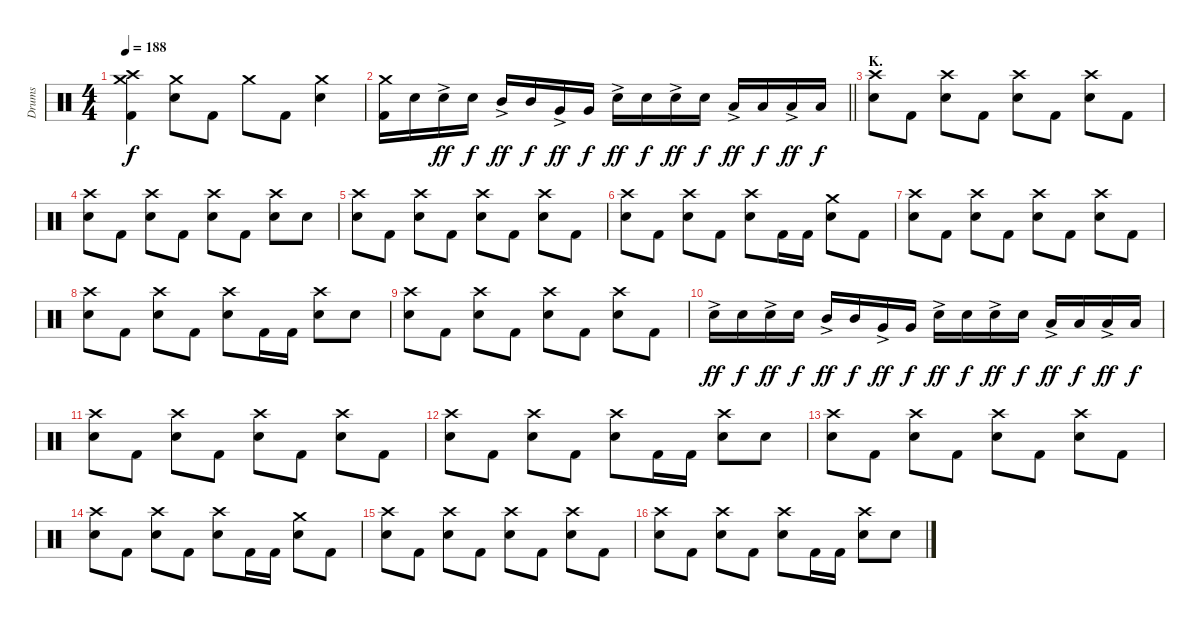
\track ("Drums" "Drums") {instrument percussion}
\staff {score}
\articulation defaults
\ts (4 4)
\tempo 188
\clef neutral
\ks c
("Crash medium (hit)" "Crash high (hit)" "Kick (hit) 2").4{dy f} ("Crash medium (hit)" "Electric Snare (hit)").8 "Kick (hit) 2".8 "Crash medium (hit)".8 "Kick (hit) 2".8 ("Crash medium (hit)" "Electric Snare (hit)").4 |
\barLineRight lightlight
("Crash medium (hit)" "Kick (hit) 2").16 "Electric Snare (hit)".16 "Electric Snare (hit)"{ac}.16{dy ff} "Electric Snare (hit)".16{dy f} "Mid Tom (hit)"{ac}.16{dy ff} "Mid Tom (hit)".16{dy f} "Very Low Tom (hit)"{ac}.16{dy ff} "Very Low Tom (hit)".16{dy f} "Electric Snare (hit)"{ac}.16{dy ff} "Electric Snare (hit)".16{dy f} "Electric Snare (hit)"{ac}.16{dy ff} "Electric Snare (hit)".16{dy f} "Low Tom (hit)"{ac}.16{dy ff} "Low Tom (hit)".16{dy f} "Low Floor Tom (hit)"{ac}.16{dy ff} "Low Floor Tom (hit)".16{dy f} |
\section ("" "K.")
("Crash high (hit)" "Electric Snare (hit)").8 "Kick (hit) 2".8 ("Crash high (hit)" "Electric Snare (hit)").8 "Kick (hit) 2".8 ("Crash high (hit)" "Electric Snare (hit)").8 "Kick (hit) 2".8 ("Crash high (hit)" "Electric Snare (hit)").8 "Kick (hit) 2".8 |
("Crash high (hit)" "Electric Snare (hit)").8 "Kick (hit) 2".8 ("Crash high (hit)" "Electric Snare (hit)").8 "Kick (hit) 2".8 ("Crash high (hit)" "Electric Snare (hit)").8 "Kick (hit) 2".8 ("Crash high (hit)" "Electric Snare (hit)").8 "Electric Snare (hit)".8 |
("Crash high (hit)" "Electric Snare (hit)").8 "Kick (hit) 2".8 ("Crash high (hit)" "Electric Snare (hit)").8 "Kick (hit) 2".8 ("Crash high (hit)" "Electric Snare (hit)").8 "Kick (hit) 2".8 ("Crash high (hit)" "Electric Snare (hit)").8 "Kick (hit) 2".8 |
("Crash high (hit)" "Electric Snare (hit)").8 "Kick (hit) 2".8 ("Crash high (hit)" "Electric Snare (hit)").8 "Kick (hit) 2".8 ("Crash high (hit)" "Electric Snare (hit)").8 "Kick (hit) 2".16 "Kick (hit) 2".16 ("Crash medium (hit)" "Electric Snare (hit)").8 "Kick (hit) 2".8 |
("Crash high (hit)" "Electric Snare (hit)").8 "Kick (hit) 2".8 ("Crash high (hit)" "Electric Snare (hit)").8 "Kick (hit) 2".8 ("Crash high (hit)" "Electric Snare (hit)").8 "Kick (hit) 2".8 ("Crash high (hit)" "Electric Snare (hit)").8 "Kick (hit) 2".8 |
("Crash high (hit)" "Electric Snare (hit)").8 "Kick (hit) 2".8 ("Crash high (hit)" "Electric Snare (hit)").8 "Kick (hit) 2".8 ("Crash high (hit)" "Electric Snare (hit)").8 "Kick (hit) 2".16 "Kick (hit) 2".16 ("Crash high (hit)" "Electric Snare (hit)").8 "Electric Snare (hit)".8 |
("Crash high (hit)" "Electric Snare (hit)").8 "Kick (hit) 2".8 ("Crash high (hit)" "Electric Snare (hit)").8 "Kick (hit) 2".8 ("Crash high (hit)" "Electric Snare (hit)").8 "Kick (hit) 2".8 ("Crash high (hit)" "Electric Snare (hit)").8 "Kick (hit) 2".8 |
"Electric Snare (hit)"{ac}.16{dy ff} "Electric Snare (hit)".16{dy f} "Electric Snare (hit)"{ac}.16{dy ff} "Electric Snare (hit)".16{dy f} "Mid Tom (hit)"{ac}.16{dy ff} "Mid Tom (hit)".16{dy f} "Very Low Tom (hit)"{ac}.16{dy ff} "Very Low Tom (hit)".16{dy f} "Electric Snare (hit)"{ac}.16{dy ff} "Electric Snare (hit)".16{dy f} "Electric Snare (hit)"{ac}.16{dy ff} "Electric Snare (hit)".16{dy f} "Low Tom (hit)"{ac}.16{dy ff} "Low Tom (hit)".16{dy f} "Low Floor Tom (hit)"{ac}.16{dy ff} "Low Floor Tom (hit)".16{dy f} |
("Crash high (hit)" "Electric Snare (hit)").8 "Kick (hit) 2".8 ("Crash high (hit)" "Electric Snare (hit)").8 "Kick (hit) 2".8 ("Crash high (hit)" "Electric Snare (hit)").8 "Kick (hit) 2".8 ("Crash high (hit)" "Electric Snare (hit)").8 "Kick (hit) 2".8 |
("Crash high (hit)" "Electric Snare (hit)").8 "Kick (hit) 2".8 ("Crash high (hit)" "Electric Snare (hit)").8 "Kick (hit) 2".8 ("Crash high (hit)" "Electric Snare (hit)").8 "Kick (hit) 2".16 "Kick (hit) 2".16 ("Crash high (hit)" "Electric Snare (hit)").8 "Electric Snare (hit)".8 |
("Crash high (hit)" "Electric Snare (hit)").8 "Kick (hit) 2".8 ("Crash high (hit)" "Electric Snare (hit)").8 "Kick (hit) 2".8 ("Crash high (hit)" "Electric Snare (hit)").8 "Kick (hit) 2".8 ("Crash high (hit)" "Electric Snare (hit)").8 "Kick (hit) 2".8 |
("Crash high (hit)" "Electric Snare (hit)").8 "Kick (hit) 2".8 ("Crash high (hit)" "Electric Snare (hit)").8 "Kick (hit) 2".8 ("Crash high (hit)" "Electric Snare (hit)").8 "Kick (hit) 2".16 "Kick (hit) 2".16 ("Crash medium (hit)" "Electric Snare (hit)").8 "Kick (hit) 2".8 |
("Crash high (hit)" "Electric Snare (hit)").8 "Kick (hit) 2".8 ("Crash high (hit)" "Electric Snare (hit)").8 "Kick (hit) 2".8 ("Crash high (hit)" "Electric Snare (hit)").8 "Kick (hit) 2".8 ("Crash high (hit)" "Electric Snare (hit)").8 "Kick (hit) 2".8 |
("Crash high (hit)" "Electric Snare (hit)").8 "Kick (hit) 2".8 ("Crash high (hit)" "Electric Snare (hit)").8 "Kick (hit) 2".8 ("Crash high (hit)" "Electric Snare (hit)").8 "Kick (hit) 2".16 "Kick (hit) 2".16 ("Crash high (hit)" "Electric Snare (hit)").8 "Electric Snare (hit)".8
